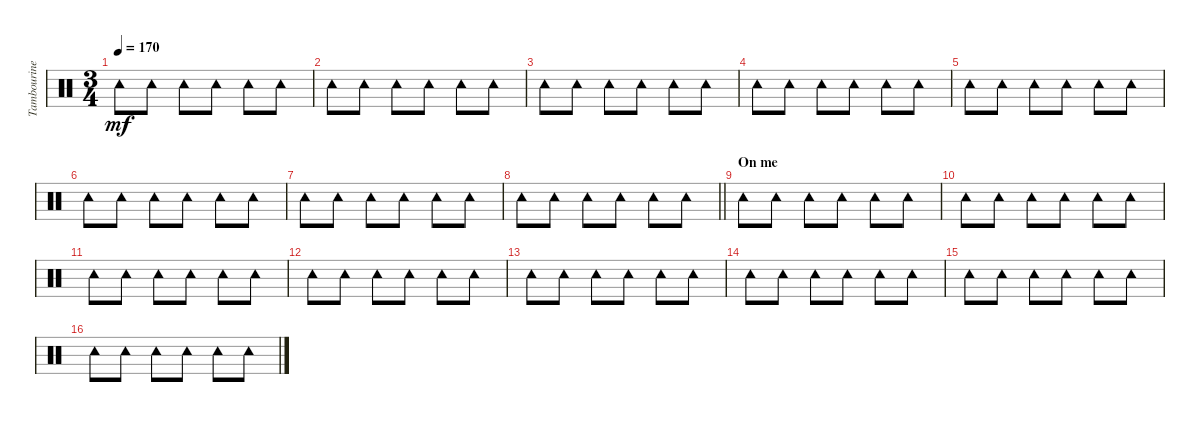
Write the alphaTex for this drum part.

\track ("Tambourine" "Tambourine") {instrument percussion}
\staff {score}
\articulation defaults
\ts (3 4)
\tempo 170
\clef neutral
\ks c "Tambourine (hit)".8{dy mf} "Tambourine (hit)".8 "Tambourine (hit)".8 "Tambourine (hit)".8 "Tambourine (hit)".8 "Tambourine (hit)".8
|
"Tambourine (hit)".8 "Tambourine (hit)".8 "Tambourine (hit)".8 "Tambourine (hit)".8 "Tambourine (hit)".8 "Tambourine (hit)".8 |
"Tambourine (hit)".8 "Tambourine (hit)".8 "Tambourine (hit)".8 "Tambourine (hit)".8 "Tambourine (hit)".8 "Tambourine (hit)".8 |
"Tambourine (hit)".8 "Tambourine (hit)".8 "Tambourine (hit)".8 "Tambourine (hit)".8 "Tambourine (hit)".8 "Tambourine (hit)".8 |
"Tambourine (hit)".8 "Tambourine (hit)".8 "Tambourine (hit)".8 "Tambourine (hit)".8 "Tambourine (hit)".8 "Tambourine (hit)".8 |
"Tambourine (hit)".8 "Tambourine (hit)".8 "Tambourine (hit)".8 "Tambourine (hit)".8 "Tambourine (hit)".8 "Tambourine (hit)".8 |
"Tambourine (hit)".8 "Tambourine (hit)".8 "Tambourine (hit)".8 "Tambourine (hit)".8 "Tambourine (hit)".8 "Tambourine (hit)".8 |
\barLineRight lightlight "Tambourine (hit)".8 "Tambourine (hit)".8 "Tambourine (hit)".8 "Tambourine (hit)".8 "Tambourine (hit)".8 "Tambourine (hit)".8
|
\section ("" "On me")
"Tambourine (hit)".8 "Tambourine (hit)".8 "Tambourine (hit)".8 "Tambourine (hit)".8 "Tambourine (hit)".8 "Tambourine (hit)".8 |
"Tambourine (hit)".8 "Tambourine (hit)".8 "Tambourine (hit)".8 "Tambourine (hit)".8 "Tambourine (hit)".8 "Tambourine (hit)".8 |
"Tambourine (hit)".8 "Tambourine (hit)".8 "Tambourine (hit)".8 "Tambourine (hit)".8 "Tambourine (hit)".8 "Tambourine (hit)".8 |
"Tambourine (hit)".8 "Tambourine (hit)".8 "Tambourine (hit)".8 "Tambourine (hit)".8 "Tambourine (hit)".8 "Tambourine (hit)".8 |
"Tambourine (hit)".8 "Tambourine (hit)".8 "Tambourine (hit)".8 "Tambourine (hit)".8 "Tambourine (hit)".8 "Tambourine (hit)".8 |
"Tambourine (hit)".8 "Tambourine (hit)".8 "Tambourine (hit)".8 "Tambourine (hit)".8 "Tambourine (hit)".8 "Tambourine (hit)".8 |
"Tambourine (hit)".8 "Tambourine (hit)".8 "Tambourine (hit)".8 "Tambourine (hit)".8 "Tambourine (hit)".8 "Tambourine (hit)".8 |
"Tambourine (hit)".8 "Tambourine (hit)".8 "Tambourine (hit)".8 "Tambourine (hit)".8 "Tambourine (hit)".8 "Tambourine (hit)".8
